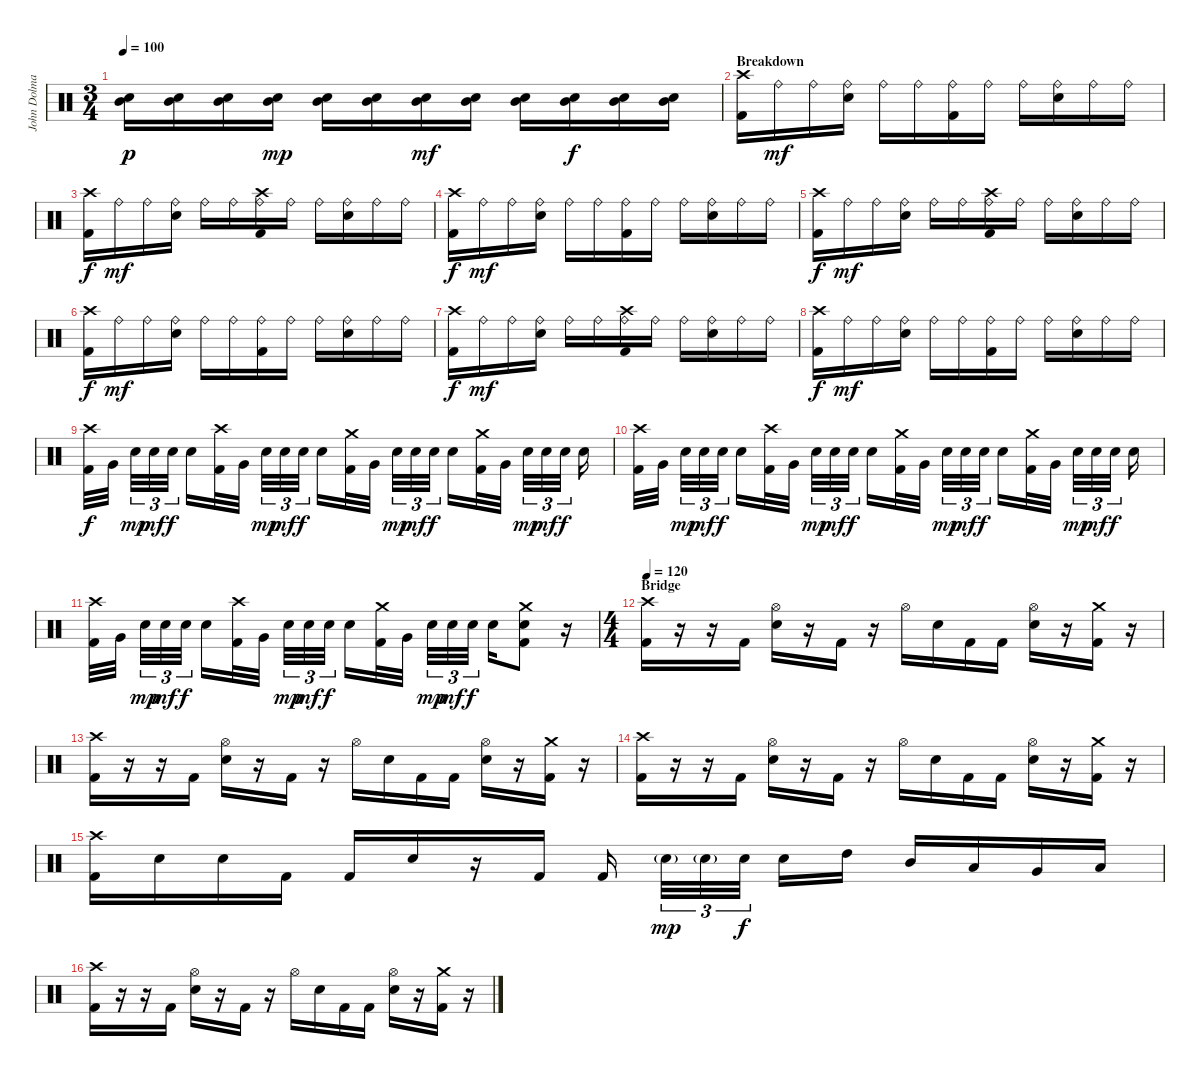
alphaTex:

\track ("John Dolmayan" "John Dolma") {instrument percussion}
\staff {score}
\articulation defaults
\ts (3 4)
\tempo 100
\clef neutral
\ks c
("Mid Tom (hit)" "Electric Snare (hit)").16{dy p} ("Mid Tom (hit)" "Electric Snare (hit)").16 ("Mid Tom (hit)" "Electric Snare (hit)").16 ("Mid Tom (hit)" "Electric Snare (hit)").16{dy mp} ("Mid Tom (hit)" "Electric Snare (hit)").16 ("Mid Tom (hit)" "Electric Snare (hit)").16 ("Mid Tom (hit)" "Electric Snare (hit)").16{dy mf} ("Mid Tom (hit)" "Electric Snare (hit)").16 ("Mid Tom (hit)" "Electric Snare (hit)").16 ("Mid Tom (hit)" "Electric Snare (hit)").16{dy f} ("Mid Tom (hit)" "Electric Snare (hit)").16 ("Mid Tom (hit)" "Electric Snare (hit)").16 |
\section ("" "Breakdown")
("Crash high (hit)" "Kick (hit) 2").16 "Ride (bell)".16{dy mf} "Ride (bell)".16 ("Ride (bell)" "Electric Snare (hit)").16 "Ride (bell)".16 "Ride (bell)".16 ("Ride (bell)" "Kick (hit) 2").16 "Ride (bell)".16 "Ride (bell)".16 ("Ride (bell)" "Electric Snare (hit)").16 "Ride (bell)".16 "Ride (bell)".16 |
("Crash high (hit)" "Kick (hit) 2").16{dy f} "Ride (bell)".16{dy mf} "Ride (bell)".16 ("Ride (bell)" "Electric Snare (hit)").16 "Ride (bell)".16 "Ride (bell)".16 ("Crash high (hit)" "Ride (bell)" "Kick (hit) 2").16 "Ride (bell)".16 "Ride (bell)".16 ("Ride (bell)" "Electric Snare (hit)").16 "Ride (bell)".16 "Ride (bell)".16 |
("Crash high (hit)" "Kick (hit) 2").16{dy f} "Ride (bell)".16{dy mf} "Ride (bell)".16 ("Ride (bell)" "Electric Snare (hit)").16 "Ride (bell)".16 "Ride (bell)".16 ("Ride (bell)" "Kick (hit) 2").16 "Ride (bell)".16 "Ride (bell)".16 ("Ride (bell)" "Electric Snare (hit)").16 "Ride (bell)".16 "Ride (bell)".16 |
("Crash high (hit)" "Kick (hit) 2").16{dy f} "Ride (bell)".16{dy mf} "Ride (bell)".16 ("Ride (bell)" "Electric Snare (hit)").16 "Ride (bell)".16 "Ride (bell)".16 ("Crash high (hit)" "Ride (bell)" "Kick (hit) 2").16 "Ride (bell)".16 "Ride (bell)".16 ("Ride (bell)" "Electric Snare (hit)").16 "Ride (bell)".16 "Ride (bell)".16 |
("Crash high (hit)" "Kick (hit) 2").16{dy f} "Ride (bell)".16{dy mf} "Ride (bell)".16 ("Ride (bell)" "Electric Snare (hit)").16 "Ride (bell)".16 "Ride (bell)".16 ("Ride (bell)" "Kick (hit) 2").16 "Ride (bell)".16 "Ride (bell)".16 ("Ride (bell)" "Electric Snare (hit)").16 "Ride (bell)".16 "Ride (bell)".16 |
("Crash high (hit)" "Kick (hit) 2").16{dy f} "Ride (bell)".16{dy mf} "Ride (bell)".16 ("Ride (bell)" "Electric Snare (hit)").16 "Ride (bell)".16 "Ride (bell)".16 ("Crash high (hit)" "Ride (bell)" "Kick (hit) 2").16 "Ride (bell)".16 "Ride (bell)".16 ("Ride (bell)" "Electric Snare (hit)").16 "Ride (bell)".16 "Ride (bell)".16 |
("Crash high (hit)" "Kick (hit) 2").16{dy f} "Ride (bell)".16{dy mf} "Ride (bell)".16 ("Ride (bell)" "Electric Snare (hit)").16 "Ride (bell)".16 "Ride (bell)".16 ("Ride (bell)" "Kick (hit) 2").16 "Ride (bell)".16 "Ride (bell)".16 ("Ride (bell)" "Electric Snare (hit)").16 "Ride (bell)".16 "Ride (bell)".16 |
("Crash high (hit)" "Kick (hit) 2").32{dy f} "Very Low Tom (hit)".32 "Electric Snare (hit)".32{tu (3 2) dy mp} "Electric Snare (hit)".32{tu (3 2) dy mf} "Electric Snare (hit)".32{tu (3 2) dy f} "Electric Snare (hit)".16 ("Crash high (hit)" "Kick (hit) 2").32 "Very Low Tom (hit)".32 "Electric Snare (hit)".32{tu (3 2) dy mp} "Electric Snare (hit)".32{tu (3 2) dy mf} "Electric Snare (hit)".32{tu (3 2) dy f} "Electric Snare (hit)".16 ("Crash medium (hit)" "Kick (hit) 2").32 "Very Low Tom (hit)".32 "Electric Snare (hit)".32{tu (3 2) dy mp} "Electric Snare (hit)".32{tu (3 2) dy mf} "Electric Snare (hit)".32{tu (3 2) dy f} "Electric Snare (hit)".16 ("Crash medium (hit)" "Kick (hit) 2").32 "Very Low Tom (hit)".32 "Electric Snare (hit)".32{tu (3 2) dy mp} "Electric Snare (hit)".32{tu (3 2) dy mf} "Electric Snare (hit)".32{tu (3 2) dy f} "Electric Snare (hit)".16 |
("Crash high (hit)" "Kick (hit) 2").32 "Very Low Tom (hit)".32 "Electric Snare (hit)".32{tu (3 2) dy mp} "Electric Snare (hit)".32{tu (3 2) dy mf} "Electric Snare (hit)".32{tu (3 2) dy f} "Electric Snare (hit)".16 ("Crash high (hit)" "Kick (hit) 2").32 "Very Low Tom (hit)".32 "Electric Snare (hit)".32{tu (3 2) dy mp} "Electric Snare (hit)".32{tu (3 2) dy mf} "Electric Snare (hit)".32{tu (3 2) dy f} "Electric Snare (hit)".16 ("Crash medium (hit)" "Kick (hit) 2").32 "Very Low Tom (hit)".32 "Electric Snare (hit)".32{tu (3 2) dy mp} "Electric Snare (hit)".32{tu (3 2) dy mf} "Electric Snare (hit)".32{tu (3 2) dy f} "Electric Snare (hit)".16 ("Crash medium (hit)" "Kick (hit) 2").32 "Very Low Tom (hit)".32 "Electric Snare (hit)".32{tu (3 2) dy mp} "Electric Snare (hit)".32{tu (3 2) dy mf} "Electric Snare (hit)".32{tu (3 2) dy f} "Electric Snare (hit)".16 |
("Crash high (hit)" "Kick (hit) 2").32 "Very Low Tom (hit)".32 "Electric Snare (hit)".32{tu (3 2) dy mp} "Electric Snare (hit)".32{tu (3 2) dy mf} "Electric Snare (hit)".32{tu (3 2) dy f} "Electric Snare (hit)".16 ("Crash high (hit)" "Kick (hit) 2").32 "Very Low Tom (hit)".32 "Electric Snare (hit)".32{tu (3 2) dy mp} "Electric Snare (hit)".32{tu (3 2) dy mf} "Electric Snare (hit)".32{tu (3 2) dy f} "Electric Snare (hit)".16 ("Crash medium (hit)" "Kick (hit) 2").32 "Very Low Tom (hit)".32 "Electric Snare (hit)".32{tu (3 2) dy mp} "Electric Snare (hit)".32{tu (3 2) dy mf} "Electric Snare (hit)".32{tu (3 2) dy f} "Electric Snare (hit)".16 ("Crash medium (hit)" "Electric Snare (hit)" "Kick (hit) 2").8 r.16 |
\ts (4 4)
\section ("" "Bridge")
\tempo 120
("Crash high (hit)" "Kick (hit) 2").16 r.16 r.16 "Kick (hit) 2".16 ("Hi-Hat (open)" "Electric Snare (hit)").16 r.16 "Kick (hit) 2".16 r.16 "Hi-Hat (open)".16 "Electric Snare (hit)".16 "Kick (hit) 2".16 "Kick (hit) 2".16 ("Hi-Hat (open)" "Electric Snare (hit)").16 r.16 ("Crash medium (hit)" "Kick (hit) 2").16 r.16 |
("Crash high (hit)" "Kick (hit) 2").16 r.16 r.16 "Kick (hit) 2".16 ("Hi-Hat (open)" "Electric Snare (hit)").16 r.16 "Kick (hit) 2".16 r.16 "Hi-Hat (open)".16 "Electric Snare (hit)".16 "Kick (hit) 2".16 "Kick (hit) 2".16 ("Hi-Hat (open)" "Electric Snare (hit)").16 r.16 ("Crash medium (hit)" "Kick (hit) 2").16 r.16 |
("Crash high (hit)" "Kick (hit) 2").16 r.16 r.16 "Kick (hit) 2".16 ("Hi-Hat (open)" "Electric Snare (hit)").16 r.16 "Kick (hit) 2".16 r.16 "Hi-Hat (open)".16 "Electric Snare (hit)".16 "Kick (hit) 2".16 "Kick (hit) 2".16 ("Hi-Hat (open)" "Electric Snare (hit)").16 r.16 ("Crash medium (hit)" "Kick (hit) 2").16 r.16 |
("Crash high (hit)" "Kick (hit) 2").16 "Electric Snare (hit)".16 "Electric Snare (hit)".16 "Kick (hit) 2".16 "Kick (hit) 2".16 "Electric Snare (hit)".16 r.16 "Kick (hit) 2".16 "Kick (hit) 2".16 "Electric Snare (hit)"{g}.32{tu (3 2) dy mp} "Electric Snare (hit)"{g}.32{tu (3 2)} "Electric Snare (hit)".32{tu (3 2) dy f} "Electric Snare (hit)".16 "High Tom (hit)".16 "Mid Tom (hit)".16 "Low Tom (hit)".16 "Very Low Tom (hit)".16 "Low Floor Tom (hit)".16 |
("Crash high (hit)" "Kick (hit) 2").16 r.16 r.16 "Kick (hit) 2".16 ("Hi-Hat (open)" "Electric Snare (hit)").16 r.16 "Kick (hit) 2".16 r.16 "Hi-Hat (open)".16 "Electric Snare (hit)".16 "Kick (hit) 2".16 "Kick (hit) 2".16 ("Hi-Hat (open)" "Electric Snare (hit)").16 r.16 ("Crash medium (hit)" "Kick (hit) 2").16 r.16
